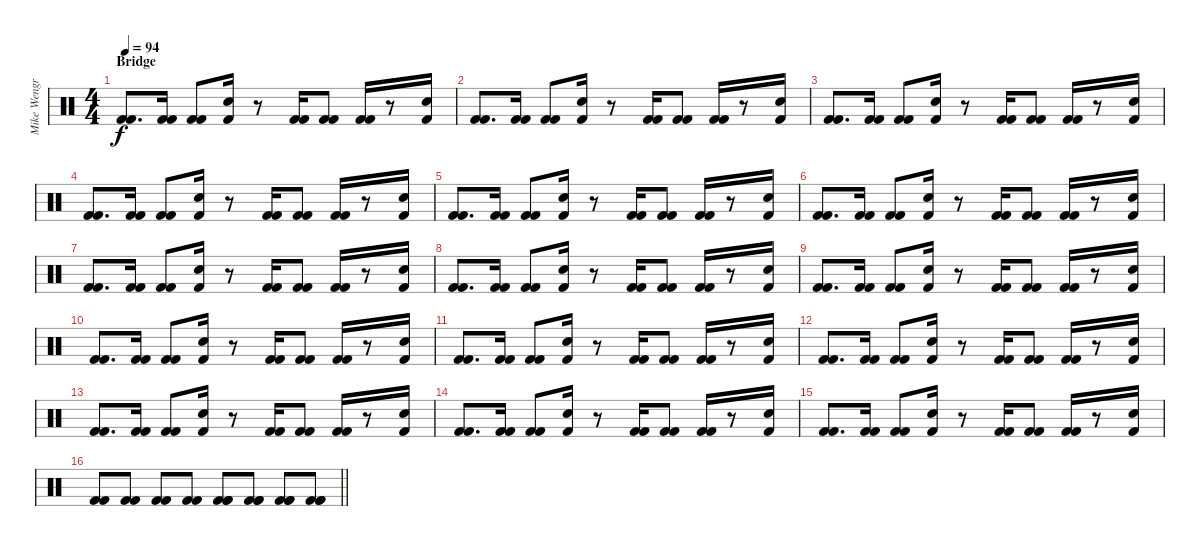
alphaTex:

\track ("Mike Wengren" "Mike Wengr") {instrument percussion}
\staff {score}
\articulation defaults
\ts (4 4)
\section ("" "Bridge")
\tempo 94
\clef neutral
\ks c
("Kick (hit) 2" "Kick (hit) 2").8{d dy f} ("Kick (hit) 2" "Kick (hit) 2").16 ("Kick (hit) 2" "Kick (hit) 2").8 ("Kick (hit) 2" "Electric Snare (hit)").16 r.8 ("Kick (hit) 2" "Kick (hit) 2").16 ("Kick (hit) 2" "Kick (hit) 2").8 ("Kick (hit) 2" "Kick (hit) 2").16 r.8 ("Kick (hit) 2" "Electric Snare (hit)").16 |
("Kick (hit) 2" "Kick (hit) 2").8{d} ("Kick (hit) 2" "Kick (hit) 2").16 ("Kick (hit) 2" "Kick (hit) 2").8 ("Kick (hit) 2" "Electric Snare (hit)").16 r.8 ("Kick (hit) 2" "Kick (hit) 2").16 ("Kick (hit) 2" "Kick (hit) 2").8 ("Kick (hit) 2" "Kick (hit) 2").16 r.8 ("Kick (hit) 2" "Electric Snare (hit)").16 |
("Kick (hit) 2" "Kick (hit) 2").8{d} ("Kick (hit) 2" "Kick (hit) 2").16 ("Kick (hit) 2" "Kick (hit) 2").8 ("Kick (hit) 2" "Electric Snare (hit)").16 r.8 ("Kick (hit) 2" "Kick (hit) 2").16 ("Kick (hit) 2" "Kick (hit) 2").8 ("Kick (hit) 2" "Kick (hit) 2").16 r.8 ("Kick (hit) 2" "Electric Snare (hit)").16 |
("Kick (hit) 2" "Kick (hit) 2").8{d} ("Kick (hit) 2" "Kick (hit) 2").16 ("Kick (hit) 2" "Kick (hit) 2").8 ("Kick (hit) 2" "Electric Snare (hit)").16 r.8 ("Kick (hit) 2" "Kick (hit) 2").16 ("Kick (hit) 2" "Kick (hit) 2").8 ("Kick (hit) 2" "Kick (hit) 2").16 r.8 ("Kick (hit) 2" "Electric Snare (hit)").16 |
("Kick (hit) 2" "Kick (hit) 2").8{d} ("Kick (hit) 2" "Kick (hit) 2").16 ("Kick (hit) 2" "Kick (hit) 2").8 ("Kick (hit) 2" "Electric Snare (hit)").16 r.8 ("Kick (hit) 2" "Kick (hit) 2").16 ("Kick (hit) 2" "Kick (hit) 2").8 ("Kick (hit) 2" "Kick (hit) 2").16 r.8 ("Kick (hit) 2" "Electric Snare (hit)").16 |
("Kick (hit) 2" "Kick (hit) 2").8{d} ("Kick (hit) 2" "Kick (hit) 2").16 ("Kick (hit) 2" "Kick (hit) 2").8 ("Kick (hit) 2" "Electric Snare (hit)").16 r.8 ("Kick (hit) 2" "Kick (hit) 2").16 ("Kick (hit) 2" "Kick (hit) 2").8 ("Kick (hit) 2" "Kick (hit) 2").16 r.8 ("Kick (hit) 2" "Electric Snare (hit)").16 |
("Kick (hit) 2" "Kick (hit) 2").8{d} ("Kick (hit) 2" "Kick (hit) 2").16 ("Kick (hit) 2" "Kick (hit) 2").8 ("Kick (hit) 2" "Electric Snare (hit)").16 r.8 ("Kick (hit) 2" "Kick (hit) 2").16 ("Kick (hit) 2" "Kick (hit) 2").8 ("Kick (hit) 2" "Kick (hit) 2").16 r.8 ("Kick (hit) 2" "Electric Snare (hit)").16 |
("Kick (hit) 2" "Kick (hit) 2").8{d} ("Kick (hit) 2" "Kick (hit) 2").16 ("Kick (hit) 2" "Kick (hit) 2").8 ("Kick (hit) 2" "Electric Snare (hit)").16 r.8 ("Kick (hit) 2" "Kick (hit) 2").16 ("Kick (hit) 2" "Kick (hit) 2").8 ("Kick (hit) 2" "Kick (hit) 2").16 r.8 ("Kick (hit) 2" "Electric Snare (hit)").16 |
("Kick (hit) 2" "Kick (hit) 2").8{d} ("Kick (hit) 2" "Kick (hit) 2").16 ("Kick (hit) 2" "Kick (hit) 2").8 ("Kick (hit) 2" "Electric Snare (hit)").16 r.8 ("Kick (hit) 2" "Kick (hit) 2").16 ("Kick (hit) 2" "Kick (hit) 2").8 ("Kick (hit) 2" "Kick (hit) 2").16 r.8 ("Kick (hit) 2" "Electric Snare (hit)").16 |
("Kick (hit) 2" "Kick (hit) 2").8{d} ("Kick (hit) 2" "Kick (hit) 2").16 ("Kick (hit) 2" "Kick (hit) 2").8 ("Kick (hit) 2" "Electric Snare (hit)").16 r.8 ("Kick (hit) 2" "Kick (hit) 2").16 ("Kick (hit) 2" "Kick (hit) 2").8 ("Kick (hit) 2" "Kick (hit) 2").16 r.8 ("Kick (hit) 2" "Electric Snare (hit)").16 |
("Kick (hit) 2" "Kick (hit) 2").8{d} ("Kick (hit) 2" "Kick (hit) 2").16 ("Kick (hit) 2" "Kick (hit) 2").8 ("Kick (hit) 2" "Electric Snare (hit)").16 r.8 ("Kick (hit) 2" "Kick (hit) 2").16 ("Kick (hit) 2" "Kick (hit) 2").8 ("Kick (hit) 2" "Kick (hit) 2").16 r.8 ("Kick (hit) 2" "Electric Snare (hit)").16 |
("Kick (hit) 2" "Kick (hit) 2").8{d} ("Kick (hit) 2" "Kick (hit) 2").16 ("Kick (hit) 2" "Kick (hit) 2").8 ("Kick (hit) 2" "Electric Snare (hit)").16 r.8 ("Kick (hit) 2" "Kick (hit) 2").16 ("Kick (hit) 2" "Kick (hit) 2").8 ("Kick (hit) 2" "Kick (hit) 2").16 r.8 ("Kick (hit) 2" "Electric Snare (hit)").16 |
("Kick (hit) 2" "Kick (hit) 2").8{d} ("Kick (hit) 2" "Kick (hit) 2").16 ("Kick (hit) 2" "Kick (hit) 2").8 ("Kick (hit) 2" "Electric Snare (hit)").16 r.8 ("Kick (hit) 2" "Kick (hit) 2").16 ("Kick (hit) 2" "Kick (hit) 2").8 ("Kick (hit) 2" "Kick (hit) 2").16 r.8 ("Kick (hit) 2" "Electric Snare (hit)").16 |
("Kick (hit) 2" "Kick (hit) 2").8{d} ("Kick (hit) 2" "Kick (hit) 2").16 ("Kick (hit) 2" "Kick (hit) 2").8 ("Kick (hit) 2" "Electric Snare (hit)").16 r.8 ("Kick (hit) 2" "Kick (hit) 2").16 ("Kick (hit) 2" "Kick (hit) 2").8 ("Kick (hit) 2" "Kick (hit) 2").16 r.8 ("Kick (hit) 2" "Electric Snare (hit)").16 |
("Kick (hit) 2" "Kick (hit) 2").8{d} ("Kick (hit) 2" "Kick (hit) 2").16 ("Kick (hit) 2" "Kick (hit) 2").8 ("Kick (hit) 2" "Electric Snare (hit)").16 r.8 ("Kick (hit) 2" "Kick (hit) 2").16 ("Kick (hit) 2" "Kick (hit) 2").8 ("Kick (hit) 2" "Kick (hit) 2").16 r.8 ("Kick (hit) 2" "Electric Snare (hit)").16 |
\barLineRight lightlight
("Kick (hit) 2" "Kick (hit) 2").8 ("Kick (hit) 2" "Kick (hit) 2").8 ("Kick (hit) 2" "Kick (hit) 2").8 ("Kick (hit) 2" "Kick (hit) 2").8 ("Kick (hit) 2" "Kick (hit) 2" "Kick (hit) 2").8 ("Kick (hit) 2" "Kick (hit) 2" "Kick (hit) 2").8 ("Kick (hit) 2" "Kick (hit) 2" "Kick (hit) 2").8 ("Kick (hit) 2" "Kick (hit) 2" "Kick (hit) 2").8
